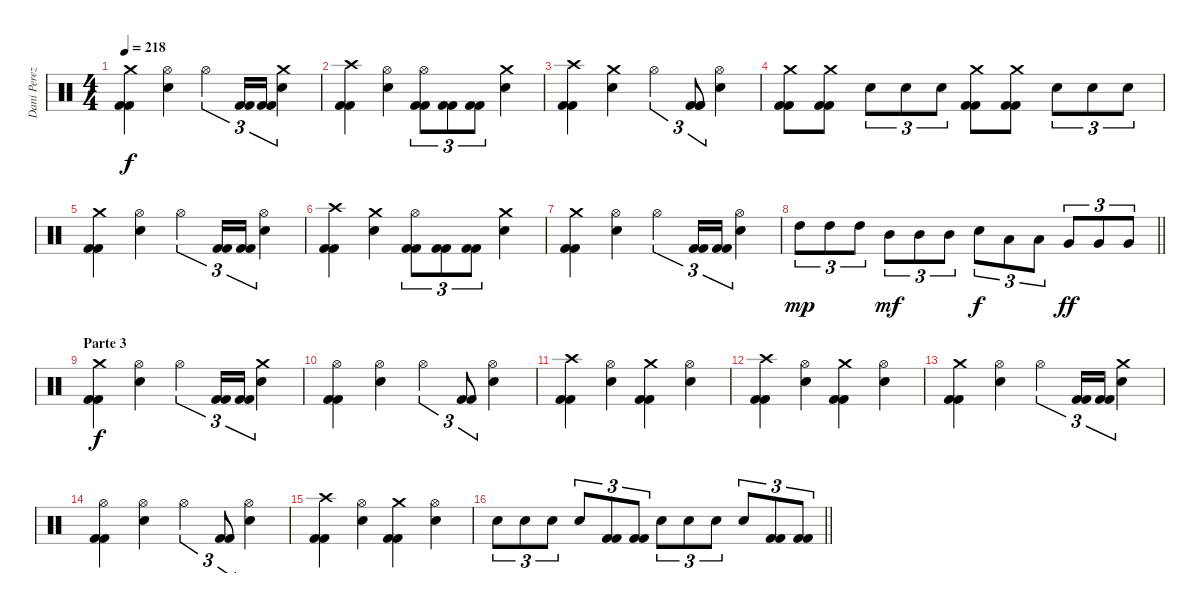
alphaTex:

\track ("Dani Perez" "Dani Perez") {instrument percussion}
\staff {score}
\articulation defaults
\ts (4 4)
\tempo 218
\clef neutral
\ks c
("Crash medium (hit)" "Kick (hit) 2" "Kick (hit) 2").4{dy f} ("Hi-Hat (open)" "Snare (hit) 2").4 "Hi-Hat (open)".4{tu (3 2)} ("Kick (hit) 2" "Kick (hit) 2").16{tu (3 2)} ("Kick (hit) 2" "Kick (hit) 2").16{tu (3 2)} ("Crash medium (hit)" "Snare (hit) 2").4 |
("Crash high (hit)" "Kick (hit) 2" "Kick (hit) 2").4 ("Hi-Hat (open)" "Snare (hit) 2").4 ("Hi-Hat (open)" "Kick (hit) 2" "Kick (hit) 2").8{tu (3 2)} ("Kick (hit) 2" "Kick (hit) 2").8{tu (3 2)} ("Kick (hit) 2" "Kick (hit) 2").8{tu (3 2)} ("Crash medium (hit)" "Snare (hit) 2").4 |
("Crash high (hit)" "Kick (hit) 2" "Kick (hit) 2").4 ("Crash medium (hit)" "Snare (hit) 2").4 "Hi-Hat (open)".4{tu (3 2)} ("Kick (hit) 2" "Kick (hit) 2" "Kick (hit) 2").8{tu (3 2)} ("Hi-Hat (open)" "Snare (hit) 2").4 |
("Kick (hit) 2" "Kick (hit) 2" "Crash medium (hit)").8 ("Kick (hit) 2" "Kick (hit) 2" "Crash medium (hit)").8 "Snare (hit) 2".8{tu (3 2)} "Snare (hit) 2".8{tu (3 2)} "Snare (hit) 2".8{tu (3 2)} ("Kick (hit) 2" "Kick (hit) 2" "Crash medium (hit)").8 ("Kick (hit) 2" "Kick (hit) 2" "Crash medium (hit)").8 "Snare (hit) 2".8{tu (3 2)} "Snare (hit) 2".8{tu (3 2)} "Snare (hit) 2".8{tu (3 2)} |
("Crash medium (hit)" "Kick (hit) 2" "Kick (hit) 2").4 ("Hi-Hat (open)" "Snare (hit) 2").4 "Hi-Hat (open)".4{tu (3 2)} ("Kick (hit) 2" "Kick (hit) 2").16{tu (3 2)} ("Kick (hit) 2" "Kick (hit) 2").16{tu (3 2)} ("Hi-Hat (open)" "Snare (hit) 2").4 |
("Crash high (hit)" "Kick (hit) 2" "Kick (hit) 2").4 ("Crash medium (hit)" "Snare (hit) 2").4 ("Hi-Hat (open)" "Kick (hit) 2" "Kick (hit) 2").8{tu (3 2)} ("Kick (hit) 2" "Kick (hit) 2").8{tu (3 2)} ("Kick (hit) 2" "Kick (hit) 2").8{tu (3 2)} ("Crash medium (hit)" "Snare (hit) 2").4 |
("Crash medium (hit)" "Kick (hit) 2" "Kick (hit) 2").4 ("Hi-Hat (open)" "Snare (hit) 2").4 "Hi-Hat (open)".4{tu (3 2)} ("Kick (hit) 2" "Kick (hit) 2").16{tu (3 2)} ("Kick (hit) 2" "Kick (hit) 2").16{tu (3 2)} ("Hi-Hat (open)" "Snare (hit) 2").4 |
\barLineRight lightlight "High Tom (hit)".8{tu (3 2) dy mp} "High Tom (hit)".8{tu (3 2)} "High Tom (hit)".8{tu (3 2)} "Mid Tom (hit)".8{tu (3 2) dy mf} "Mid Tom (hit)".8{tu (3 2)} "Mid Tom (hit)".8{tu (3 2)} "Snare (hit) 2".8{tu (3 2) dy f} "Low Tom (hit)".8{tu (3 2)} "Low Tom (hit)".8{tu (3 2)} "Very Low Tom (hit)".8{tu (3 2) dy ff} "Very Low Tom (hit)".8{tu (3 2)} "Very Low Tom (hit)".8{tu (3 2)}
|
\section ("" "Parte 3")
("Crash medium (hit)" "Kick (hit) 2" "Kick (hit) 2").4{dy f} ("Hi-Hat (open)" "Snare (hit) 2").4 "Hi-Hat (open)".4{tu (3 2)} ("Kick (hit) 2" "Kick (hit) 2").16{tu (3 2)} ("Kick (hit) 2" "Kick (hit) 2").16{tu (3 2)} ("Crash medium (hit)" "Snare (hit) 2").4 |
("Hi-Hat (open)" "Kick (hit) 2" "Kick (hit) 2").4 ("Hi-Hat (open)" "Snare (hit) 2").4 "Hi-Hat (open)".4{tu (3 2)} ("Kick (hit) 2" "Kick (hit) 2").8{tu (3 2)} ("Hi-Hat (open)" "Snare (hit) 2").4 |
("Crash high (hit)" "Kick (hit) 2" "Kick (hit) 2").4 ("Hi-Hat (open)" "Snare (hit) 2").4 ("Crash medium (hit)" "Kick (hit) 2" "Kick (hit) 2").4 ("Hi-Hat (open)" "Snare (hit) 2").4 |
("Crash high (hit)" "Kick (hit) 2" "Kick (hit) 2").4 ("Hi-Hat (open)" "Snare (hit) 2").4 ("Crash medium (hit)" "Kick (hit) 2" "Kick (hit) 2").4 ("Hi-Hat (open)" "Snare (hit) 2").4 |
("Crash medium (hit)" "Kick (hit) 2" "Kick (hit) 2").4 ("Hi-Hat (open)" "Snare (hit) 2").4 "Hi-Hat (open)".4{tu (3 2)} ("Kick (hit) 2" "Kick (hit) 2").16{tu (3 2)} ("Kick (hit) 2" "Kick (hit) 2").16{tu (3 2)} ("Crash medium (hit)" "Snare (hit) 2").4 |
("Hi-Hat (open)" "Kick (hit) 2" "Kick (hit) 2").4 ("Hi-Hat (open)" "Snare (hit) 2").4 "Hi-Hat (open)".4{tu (3 2)} ("Kick (hit) 2" "Kick (hit) 2").8{tu (3 2)} ("Hi-Hat (open)" "Snare (hit) 2").4 |
("Crash high (hit)" "Kick (hit) 2" "Kick (hit) 2").4 ("Hi-Hat (open)" "Snare (hit) 2").4 ("Crash medium (hit)" "Kick (hit) 2" "Kick (hit) 2").4 ("Hi-Hat (open)" "Snare (hit) 2").4 |
\barLineRight lightlight "Snare (hit) 2".8{tu (3 2)} "Snare (hit) 2".8{tu (3 2)} "Snare (hit) 2".8{tu (3 2)} "Snare (hit) 2".8{tu (3 2)}
("Kick (hit) 2" "Kick (hit) 2").8{tu (3 2)} ("Kick (hit) 2" "Kick (hit) 2").8{tu (3 2)} "Snare (hit) 2".8{tu (3 2)} "Snare (hit) 2".8{tu (3 2)} "Snare (hit) 2".8{tu (3 2)} "Snare (hit) 2".8{tu (3 2)} ("Kick (hit) 2" "Kick (hit) 2").8{tu (3 2)} ("Kick (hit) 2" "Kick (hit) 2").8{tu (3 2)}
